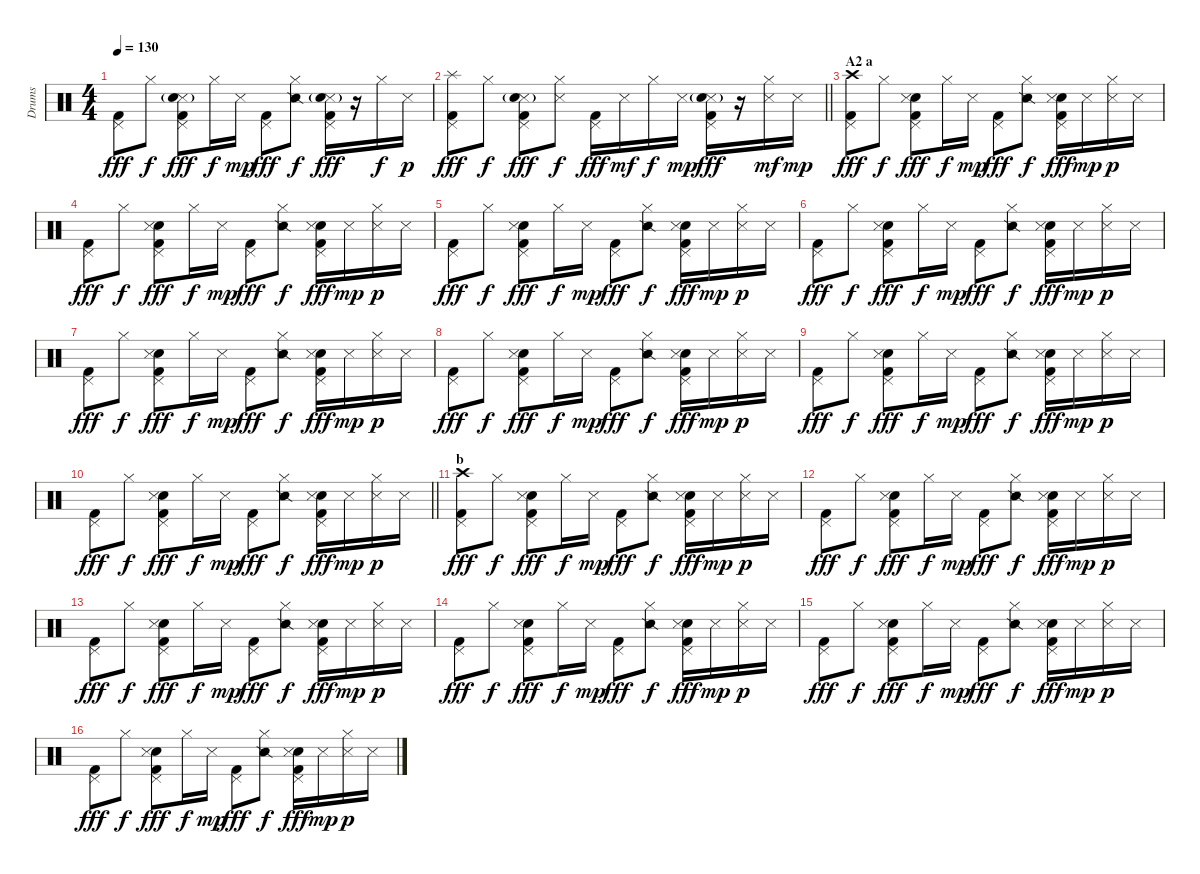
\track ("Drums" "Drums") {instrument percussion}
\staff {score}
\articulation defaults
\ts (4 4)
\tempo 130
\clef neutral
\ks c
("Pedal Hi-Hat (hit)" "Kick (hit) 2").8{dy fff} "Hi-Hat (closed)".8{dy f} ("Pedal Hi-Hat (hit)" "Snare (side stick) 3"{g} "Electric Snare (hit)" "Kick (hit) 2").8{dy fff} "Hi-Hat (closed)".16{dy f} "Snare (side stick) 3".16{dy mp} ("Pedal Hi-Hat (hit)" "Kick (hit) 2").8{dy fff} ("Hi-Hat (closed)" "Snare (side stick) 2").8{dy f} ("Pedal Hi-Hat (hit)" "Snare (side stick) 3"{g} "Electric Snare (hit)" "Kick (hit) 2").16{dy fff} r.16 "Hi-Hat (closed)".16{dy f} "Snare (side stick) 3".16{dy p} |
\barLineRight lightlight
("Splash (hit)" "Pedal Hi-Hat (hit)" "Kick (hit) 2").8{dy fff} "Hi-Hat (closed)".8{dy f} ("Pedal Hi-Hat (hit)" "Snare (side stick) 3"{g} "Electric Snare (hit)" "Kick (hit) 2").8{dy fff} ("Hi-Hat (closed)" "Snare (side stick) 3").8{dy f} ("Pedal Hi-Hat (hit)" "Kick (hit) 2").16{dy fff} "Snare (side stick) 3".16{dy mf} "Hi-Hat (closed)".16{dy f} "Snare (side stick) 3".16{dy mp} ("Pedal Hi-Hat (hit)" "Snare (side stick) 3"{g} "Electric Snare (hit)" "Kick (hit) 2").16{dy fff} r.16 ("Hi-Hat (closed)" "Snare (side stick) 3").16{dy mf} "Snare (side stick) 3".16{dy mp} |
\section ("" "A2 a")
("Crash high (hit)" "Pedal Hi-Hat (hit)" "Kick (hit) 2").8{dy fff} "Hi-Hat (closed)".8{dy f} ("Pedal Hi-Hat (hit)" "Electric Snare (hit)" "Snare (side stick) 3" "Kick (hit) 2").8{dy fff} "Hi-Hat (closed)".16{dy f} "Snare (side stick) 3".16{dy mp} ("Pedal Hi-Hat (hit)" "Kick (hit) 2").8{dy fff} ("Hi-Hat (closed)" "Snare (side stick) 2").8{dy f} ("Pedal Hi-Hat (hit)" "Electric Snare (hit)" "Snare (side stick) 3" "Kick (hit) 2").16{dy fff} "Snare (side stick) 3".16{dy mp} ("Hi-Hat (closed)" "Snare (side stick) 3").16{dy p} "Snare (side stick) 3".16 |
("Pedal Hi-Hat (hit)" "Kick (hit) 2").8{dy fff} "Hi-Hat (closed)".8{dy f} ("Pedal Hi-Hat (hit)" "Electric Snare (hit)" "Snare (side stick) 3" "Kick (hit) 2").8{dy fff} "Hi-Hat (closed)".16{dy f} "Snare (side stick) 3".16{dy mp} ("Pedal Hi-Hat (hit)" "Kick (hit) 2").8{dy fff} ("Hi-Hat (closed)" "Snare (side stick) 2").8{dy f} ("Pedal Hi-Hat (hit)" "Electric Snare (hit)" "Snare (side stick) 3" "Kick (hit) 2").16{dy fff} "Snare (side stick) 3".16{dy mp} ("Hi-Hat (closed)" "Snare (side stick) 3").16{dy p} "Snare (side stick) 3".16 |
("Pedal Hi-Hat (hit)" "Kick (hit) 2").8{dy fff} "Hi-Hat (closed)".8{dy f} ("Pedal Hi-Hat (hit)" "Electric Snare (hit)" "Snare (side stick) 3" "Kick (hit) 2").8{dy fff} "Hi-Hat (closed)".16{dy f} "Snare (side stick) 3".16{dy mp} ("Pedal Hi-Hat (hit)" "Kick (hit) 2").8{dy fff} ("Hi-Hat (closed)" "Snare (side stick) 2").8{dy f} ("Pedal Hi-Hat (hit)" "Electric Snare (hit)" "Snare (side stick) 3" "Kick (hit) 2").16{dy fff} "Snare (side stick) 3".16{dy mp} ("Hi-Hat (closed)" "Snare (side stick) 3").16{dy p} "Snare (side stick) 3".16 |
("Pedal Hi-Hat (hit)" "Kick (hit) 2").8{dy fff} "Hi-Hat (closed)".8{dy f} ("Pedal Hi-Hat (hit)" "Electric Snare (hit)" "Snare (side stick) 3" "Kick (hit) 2").8{dy fff} "Hi-Hat (closed)".16{dy f} "Snare (side stick) 3".16{dy mp} ("Pedal Hi-Hat (hit)" "Kick (hit) 2").8{dy fff} ("Hi-Hat (closed)" "Snare (side stick) 2").8{dy f} ("Pedal Hi-Hat (hit)" "Electric Snare (hit)" "Snare (side stick) 3" "Kick (hit) 2").16{dy fff} "Snare (side stick) 3".16{dy mp} ("Hi-Hat (closed)" "Snare (side stick) 3").16{dy p} "Snare (side stick) 3".16 |
("Pedal Hi-Hat (hit)" "Kick (hit) 2").8{dy fff} "Hi-Hat (closed)".8{dy f} ("Pedal Hi-Hat (hit)" "Electric Snare (hit)" "Snare (side stick) 3" "Kick (hit) 2").8{dy fff} "Hi-Hat (closed)".16{dy f} "Snare (side stick) 3".16{dy mp} ("Pedal Hi-Hat (hit)" "Kick (hit) 2").8{dy fff} ("Hi-Hat (closed)" "Snare (side stick) 2").8{dy f} ("Pedal Hi-Hat (hit)" "Electric Snare (hit)" "Snare (side stick) 3" "Kick (hit) 2").16{dy fff} "Snare (side stick) 3".16{dy mp} ("Hi-Hat (closed)" "Snare (side stick) 3").16{dy p} "Snare (side stick) 3".16 |
("Pedal Hi-Hat (hit)" "Kick (hit) 2").8{dy fff} "Hi-Hat (closed)".8{dy f} ("Pedal Hi-Hat (hit)" "Electric Snare (hit)" "Snare (side stick) 3" "Kick (hit) 2").8{dy fff} "Hi-Hat (closed)".16{dy f} "Snare (side stick) 3".16{dy mp} ("Pedal Hi-Hat (hit)" "Kick (hit) 2").8{dy fff} ("Hi-Hat (closed)" "Snare (side stick) 2").8{dy f} ("Pedal Hi-Hat (hit)" "Electric Snare (hit)" "Snare (side stick) 3" "Kick (hit) 2").16{dy fff} "Snare (side stick) 3".16{dy mp} ("Hi-Hat (closed)" "Snare (side stick) 3").16{dy p} "Snare (side stick) 3".16 |
("Pedal Hi-Hat (hit)" "Kick (hit) 2").8{dy fff} "Hi-Hat (closed)".8{dy f} ("Pedal Hi-Hat (hit)" "Electric Snare (hit)" "Snare (side stick) 3" "Kick (hit) 2").8{dy fff} "Hi-Hat (closed)".16{dy f} "Snare (side stick) 3".16{dy mp} ("Pedal Hi-Hat (hit)" "Kick (hit) 2").8{dy fff} ("Hi-Hat (closed)" "Snare (side stick) 2").8{dy f} ("Pedal Hi-Hat (hit)" "Electric Snare (hit)" "Snare (side stick) 3" "Kick (hit) 2").16{dy fff} "Snare (side stick) 3".16{dy mp} ("Hi-Hat (closed)" "Snare (side stick) 3").16{dy p} "Snare (side stick) 3".16 |
\barLineRight lightlight
("Pedal Hi-Hat (hit)" "Kick (hit) 2").8{dy fff} "Hi-Hat (closed)".8{dy f} ("Pedal Hi-Hat (hit)" "Electric Snare (hit)" "Snare (side stick) 3" "Kick (hit) 2").8{dy fff} "Hi-Hat (closed)".16{dy f} "Snare (side stick) 3".16{dy mp} ("Pedal Hi-Hat (hit)" "Kick (hit) 2").8{dy fff} ("Hi-Hat (closed)" "Snare (side stick) 2").8{dy f} ("Pedal Hi-Hat (hit)" "Electric Snare (hit)" "Snare (side stick) 3" "Kick (hit) 2").16{dy fff} "Snare (side stick) 3".16{dy mp} ("Hi-Hat (closed)" "Snare (side stick) 3").16{dy p} "Snare (side stick) 3".16 |
\section ("" "b")
("Crash high (hit)" "Pedal Hi-Hat (hit)" "Kick (hit) 2").8{dy fff} "Hi-Hat (closed)".8{dy f} ("Pedal Hi-Hat (hit)" "Electric Snare (hit)" "Snare (side stick) 3" "Kick (hit) 2").8{dy fff} "Hi-Hat (closed)".16{dy f} "Snare (side stick) 3".16{dy mp} ("Pedal Hi-Hat (hit)" "Kick (hit) 2").8{dy fff} ("Hi-Hat (closed)" "Snare (side stick) 2").8{dy f} ("Pedal Hi-Hat (hit)" "Electric Snare (hit)" "Snare (side stick) 3" "Kick (hit) 2").16{dy fff} "Snare (side stick) 3".16{dy mp} ("Hi-Hat (closed)" "Snare (side stick) 3").16{dy p} "Snare (side stick) 3".16 |
("Pedal Hi-Hat (hit)" "Kick (hit) 2").8{dy fff} "Hi-Hat (closed)".8{dy f} ("Pedal Hi-Hat (hit)" "Electric Snare (hit)" "Snare (side stick) 3" "Kick (hit) 2").8{dy fff} "Hi-Hat (closed)".16{dy f} "Snare (side stick) 3".16{dy mp} ("Pedal Hi-Hat (hit)" "Kick (hit) 2").8{dy fff} ("Hi-Hat (closed)" "Snare (side stick) 2").8{dy f} ("Pedal Hi-Hat (hit)" "Electric Snare (hit)" "Snare (side stick) 3" "Kick (hit) 2").16{dy fff} "Snare (side stick) 3".16{dy mp} ("Hi-Hat (closed)" "Snare (side stick) 3").16{dy p} "Snare (side stick) 3".16 |
("Pedal Hi-Hat (hit)" "Kick (hit) 2").8{dy fff} "Hi-Hat (closed)".8{dy f} ("Pedal Hi-Hat (hit)" "Electric Snare (hit)" "Snare (side stick) 3" "Kick (hit) 2").8{dy fff} "Hi-Hat (closed)".16{dy f} "Snare (side stick) 3".16{dy mp} ("Pedal Hi-Hat (hit)" "Kick (hit) 2").8{dy fff} ("Hi-Hat (closed)" "Snare (side stick) 2").8{dy f} ("Pedal Hi-Hat (hit)" "Electric Snare (hit)" "Snare (side stick) 3" "Kick (hit) 2").16{dy fff} "Snare (side stick) 3".16{dy mp} ("Hi-Hat (closed)" "Snare (side stick) 3").16{dy p} "Snare (side stick) 3".16 |
("Pedal Hi-Hat (hit)" "Kick (hit) 2").8{dy fff} "Hi-Hat (closed)".8{dy f} ("Pedal Hi-Hat (hit)" "Electric Snare (hit)" "Snare (side stick) 3" "Kick (hit) 2").8{dy fff} "Hi-Hat (closed)".16{dy f} "Snare (side stick) 3".16{dy mp} ("Pedal Hi-Hat (hit)" "Kick (hit) 2").8{dy fff} ("Hi-Hat (closed)" "Snare (side stick) 2").8{dy f} ("Pedal Hi-Hat (hit)" "Electric Snare (hit)" "Snare (side stick) 3" "Kick (hit) 2").16{dy fff} "Snare (side stick) 3".16{dy mp} ("Hi-Hat (closed)" "Snare (side stick) 3").16{dy p} "Snare (side stick) 3".16 |
("Pedal Hi-Hat (hit)" "Kick (hit) 2").8{dy fff} "Hi-Hat (closed)".8{dy f} ("Pedal Hi-Hat (hit)" "Electric Snare (hit)" "Snare (side stick) 3" "Kick (hit) 2").8{dy fff} "Hi-Hat (closed)".16{dy f} "Snare (side stick) 3".16{dy mp} ("Pedal Hi-Hat (hit)" "Kick (hit) 2").8{dy fff} ("Hi-Hat (closed)" "Snare (side stick) 2").8{dy f} ("Pedal Hi-Hat (hit)" "Electric Snare (hit)" "Snare (side stick) 3" "Kick (hit) 2").16{dy fff} "Snare (side stick) 3".16{dy mp} ("Hi-Hat (closed)" "Snare (side stick) 3").16{dy p} "Snare (side stick) 3".16 |
("Pedal Hi-Hat (hit)" "Kick (hit) 2").8{dy fff} "Hi-Hat (closed)".8{dy f} ("Pedal Hi-Hat (hit)" "Electric Snare (hit)" "Snare (side stick) 3" "Kick (hit) 2").8{dy fff} "Hi-Hat (closed)".16{dy f} "Snare (side stick) 3".16{dy mp} ("Pedal Hi-Hat (hit)" "Kick (hit) 2").8{dy fff} ("Hi-Hat (closed)" "Snare (side stick) 2").8{dy f} ("Pedal Hi-Hat (hit)" "Electric Snare (hit)" "Snare (side stick) 3" "Kick (hit) 2").16{dy fff} "Snare (side stick) 3".16{dy mp} ("Hi-Hat (closed)" "Snare (side stick) 3").16{dy p} "Snare (side stick) 3".16
